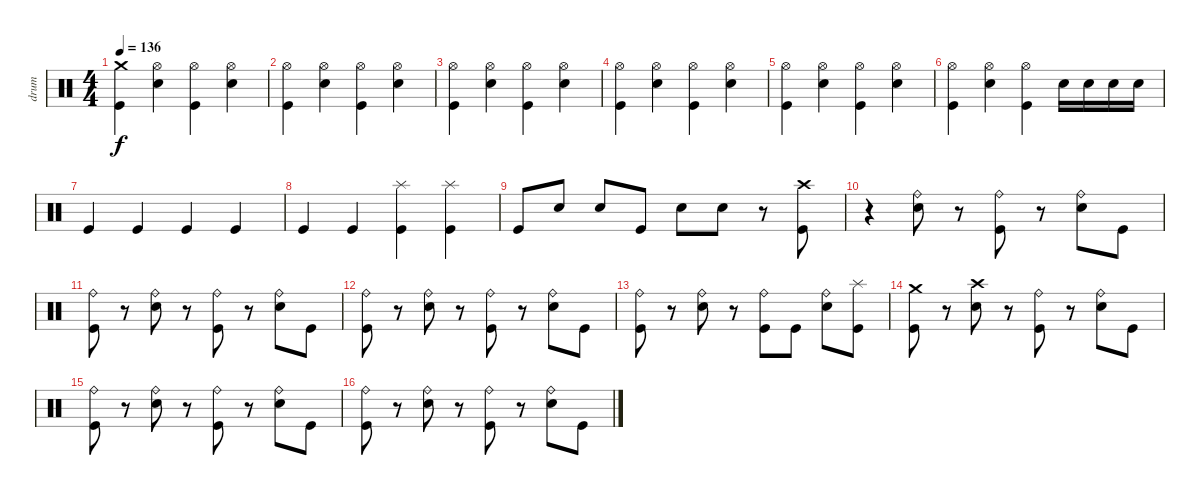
\track ("drum" "drum") {instrument percussion}
\staff {score}
\articulation defaults
\ts (4 4)
\tempo 136
\clef neutral
\ks c
("Kick (hit)" "Crash medium (hit)").4{dy f} ("Electric Snare (hit)" "Hi-Hat (open)").4 ("Kick (hit)" "Hi-Hat (open)").4 ("Electric Snare (hit)" "Hi-Hat (open)").4 |
("Kick (hit)" "Hi-Hat (open)").4 ("Electric Snare (hit)" "Hi-Hat (open)").4 ("Kick (hit)" "Hi-Hat (open)").4 ("Electric Snare (hit)" "Hi-Hat (open)").4 |
("Kick (hit)" "Hi-Hat (open)").4 ("Electric Snare (hit)" "Hi-Hat (open)").4 ("Kick (hit)" "Hi-Hat (open)").4 ("Electric Snare (hit)" "Hi-Hat (open)").4 |
("Kick (hit)" "Hi-Hat (open)").4 ("Electric Snare (hit)" "Hi-Hat (open)").4 ("Kick (hit)" "Hi-Hat (open)").4 ("Electric Snare (hit)" "Hi-Hat (open)").4 |
("Kick (hit)" "Hi-Hat (open)").4 ("Electric Snare (hit)" "Hi-Hat (open)").4 ("Kick (hit)" "Hi-Hat (open)").4 ("Electric Snare (hit)" "Hi-Hat (open)").4 |
("Kick (hit)" "Hi-Hat (open)").4 ("Electric Snare (hit)" "Hi-Hat (open)").4 ("Kick (hit)" "Hi-Hat (open)").4 "Electric Snare (hit)".16 "Electric Snare (hit)".16 "Electric Snare (hit)".16 "Electric Snare (hit)".16 |
"Kick (hit)".4 "Kick (hit)".4 "Kick (hit)".4 "Kick (hit)".4 |
"Kick (hit)".4 "Kick (hit)".4 ("Kick (hit)" "Splash (hit)").4 ("Kick (hit)" "Splash (hit)").4 |
"Kick (hit)".8 "Electric Snare (hit)".8 "Electric Snare (hit)".8 "Kick (hit)".8 "Electric Snare (hit)".8 "Electric Snare (hit)".8 r.8 ("Kick (hit)" "Crash high (hit)").8 |
r.4 ("Electric Snare (hit)" "Ride (bell)").8 r.8 ("Kick (hit)" "Ride (bell)").8 r.8 ("Electric Snare (hit)" "Ride (bell)").8 "Kick (hit)".8 |
("Kick (hit)" "Ride (bell)").8 r.8 ("Electric Snare (hit)" "Ride (bell)").8 r.8 ("Kick (hit)" "Ride (bell)").8 r.8 ("Electric Snare (hit)" "Ride (bell)").8 "Kick (hit)".8 |
("Kick (hit)" "Ride (bell)").8 r.8 ("Electric Snare (hit)" "Ride (bell)").8 r.8 ("Kick (hit)" "Ride (bell)").8 r.8 ("Electric Snare (hit)" "Ride (bell)").8 "Kick (hit)".8 |
("Kick (hit)" "Ride (bell)").8 r.8 ("Electric Snare (hit)" "Ride (bell)").8 r.8 ("Kick (hit)" "Ride (bell)").8 "Kick (hit)".8 ("Electric Snare (hit)" "Ride (bell)").8 ("Kick (hit)" "Splash (hit)").8 |
("Kick (hit)" "Crash medium (hit)").8 r.8 ("Electric Snare (hit)" "Crash high (hit)").8 r.8 ("Kick (hit)" "Ride (bell)").8 r.8 ("Electric Snare (hit)" "Ride (bell)").8 "Kick (hit)".8 |
("Kick (hit)" "Ride (bell)").8 r.8 ("Electric Snare (hit)" "Ride (bell)").8 r.8 ("Kick (hit)" "Ride (bell)").8 r.8 ("Electric Snare (hit)" "Ride (bell)").8 "Kick (hit)".8 |
("Kick (hit)" "Ride (bell)").8 r.8 ("Electric Snare (hit)" "Ride (bell)").8 r.8 ("Kick (hit)" "Ride (bell)").8 r.8 ("Electric Snare (hit)" "Ride (bell)").8 "Kick (hit)".8
